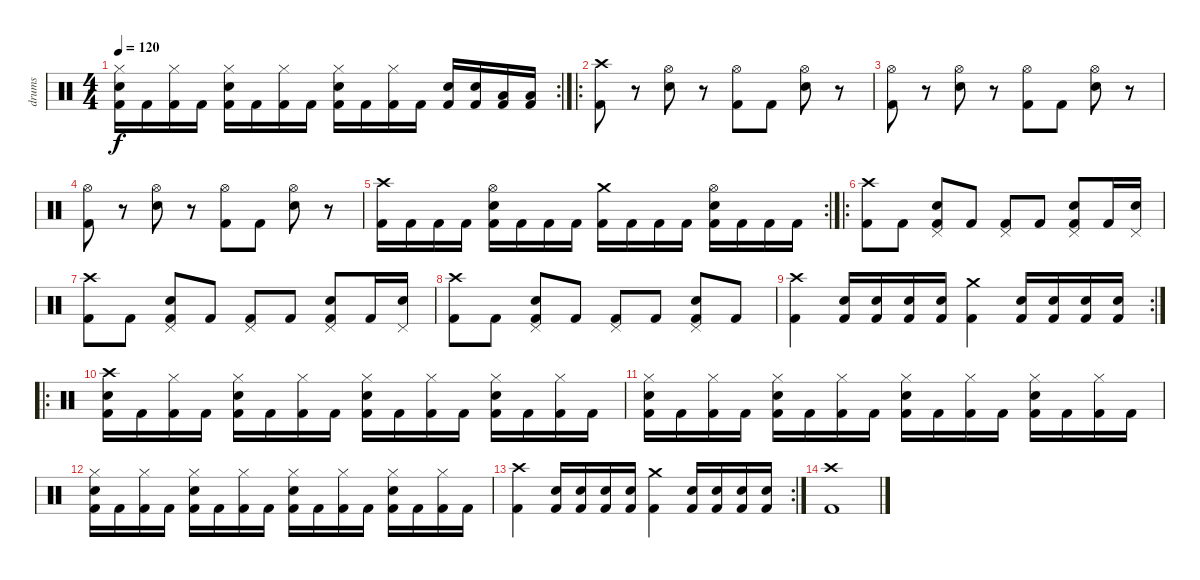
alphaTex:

\track ("drums" "drums") {instrument percussion}
\staff {score}
\articulation defaults
\rc 2
\ts (4 4)
\tempo 120
\clef neutral
\ks c
("Hi-Hat (closed)" "Snare (hit) 2" "Kick (hit) 2").16{dy f} "Kick (hit) 2".16 ("Hi-Hat (closed)" "Kick (hit) 2").16 "Kick (hit) 2".16 ("Hi-Hat (closed)" "Snare (hit) 2" "Kick (hit) 2").16 "Kick (hit) 2".16 ("Hi-Hat (closed)" "Kick (hit) 2").16 "Kick (hit) 2".16 ("Hi-Hat (closed)" "Snare (hit) 2" "Kick (hit) 2").16 "Kick (hit) 2".16 ("Hi-Hat (closed)" "Kick (hit) 2").16 "Kick (hit) 2".16 ("Snare (hit) 2" "Kick (hit) 2").16 ("Snare (hit) 2" "Kick (hit) 2").16 ("Low Tom (hit)" "Kick (hit) 2").16 ("Low Tom (hit)" "Kick (hit) 2").16 |
\ro
("Crash high (hit)" "Kick (hit) 2").8 r.8 ("Hi-Hat (open)" "Snare (hit) 2").8 r.8 ("Hi-Hat (open)" "Kick (hit) 2").8 "Kick (hit) 2".8 ("Hi-Hat (open)" "Snare (hit) 2").8 r.8 |
("Hi-Hat (open)" "Kick (hit) 2").8 r.8 ("Hi-Hat (open)" "Snare (hit) 2").8 r.8 ("Hi-Hat (open)" "Kick (hit) 2").8 "Kick (hit) 2".8 ("Hi-Hat (open)" "Snare (hit) 2").8 r.8 |
("Hi-Hat (open)" "Kick (hit) 2").8 r.8 ("Hi-Hat (open)" "Snare (hit) 2").8 r.8 ("Hi-Hat (open)" "Kick (hit) 2").8 "Kick (hit) 2".8 ("Hi-Hat (open)" "Snare (hit) 2").8 r.8 |
\rc 2
("Crash high (hit)" "Kick (hit) 2").16 "Kick (hit) 2".16 "Kick (hit) 2".16 "Kick (hit) 2".16 ("Hi-Hat (open)" "Snare (hit) 2" "Kick (hit) 2").16 "Kick (hit) 2".16 "Kick (hit) 2".16 "Kick (hit) 2".16 ("Crash medium (hit)" "Kick (hit) 2").16 "Kick (hit) 2".16 "Kick (hit) 2".16 "Kick (hit) 2".16 ("Hi-Hat (open)" "Snare (hit) 2" "Kick (hit) 2").16 "Kick (hit) 2".16 "Kick (hit) 2".16 "Kick (hit) 2".16 |
\ro
("Crash high (hit)" "Kick (hit) 2").8 "Kick (hit) 2".8 ("Pedal Hi-Hat (hit)" "Snare (hit) 2" "Kick (hit) 2").8 "Kick (hit) 2".8 ("Pedal Hi-Hat (hit)" "Kick (hit) 2").8 "Kick (hit) 2".8 ("Pedal Hi-Hat (hit)" "Snare (hit) 2" "Kick (hit) 2").8 "Kick (hit) 2".16 ("Pedal Hi-Hat (hit)" "Snare (hit) 2").16 |
("Crash high (hit)" "Kick (hit) 2").8 "Kick (hit) 2".8 ("Pedal Hi-Hat (hit)" "Snare (hit) 2" "Kick (hit) 2").8 "Kick (hit) 2".8 ("Pedal Hi-Hat (hit)" "Kick (hit) 2").8 "Kick (hit) 2".8 ("Pedal Hi-Hat (hit)" "Snare (hit) 2" "Kick (hit) 2").8 "Kick (hit) 2".16 ("Pedal Hi-Hat (hit)" "Snare (hit) 2").16 |
("Crash high (hit)" "Kick (hit) 2").8 "Kick (hit) 2".8 ("Pedal Hi-Hat (hit)" "Snare (hit) 2" "Kick (hit) 2").8 "Kick (hit) 2".8 ("Pedal Hi-Hat (hit)" "Kick (hit) 2").8 "Kick (hit) 2".8 ("Pedal Hi-Hat (hit)" "Snare (hit) 2" "Kick (hit) 2").8 "Kick (hit) 2".8 |
\rc 2
("Crash high (hit)" "Kick (hit) 2").4 ("Snare (hit) 2" "Kick (hit) 2").16 ("Snare (hit) 2" "Kick (hit) 2").16 ("Snare (hit) 2" "Kick (hit) 2").16 ("Snare (hit) 2" "Kick (hit) 2").16 ("Crash medium (hit)" "Kick (hit) 2").4 ("Snare (hit) 2" "Kick (hit) 2").16 ("Snare (hit) 2" "Kick (hit) 2").16 ("Snare (hit) 2" "Kick (hit) 2").16 ("Snare (hit) 2" "Kick (hit) 2").16 |
\ro
("Crash high (hit)" "Snare (hit) 2" "Kick (hit) 2").16 "Kick (hit) 2".16 ("Hi-Hat (closed)" "Kick (hit) 2").16 "Kick (hit) 2".16 ("Hi-Hat (closed)" "Snare (hit) 2" "Kick (hit) 2").16 "Kick (hit) 2".16 ("Hi-Hat (closed)" "Kick (hit) 2").16 "Kick (hit) 2".16 ("Hi-Hat (closed)" "Snare (hit) 2" "Kick (hit) 2").16 "Kick (hit) 2".16 ("Hi-Hat (closed)" "Kick (hit) 2").16 "Kick (hit) 2".16 ("Hi-Hat (closed)" "Snare (hit) 2" "Kick (hit) 2").16 "Kick (hit) 2".16 ("Hi-Hat (closed)" "Kick (hit) 2").16 "Kick (hit) 2".16 |
("Hi-Hat (closed)" "Snare (hit) 2" "Kick (hit) 2").16 "Kick (hit) 2".16 ("Hi-Hat (closed)" "Kick (hit) 2").16 "Kick (hit) 2".16 ("Hi-Hat (closed)" "Snare (hit) 2" "Kick (hit) 2").16 "Kick (hit) 2".16 ("Hi-Hat (closed)" "Kick (hit) 2").16 "Kick (hit) 2".16 ("Hi-Hat (closed)" "Snare (hit) 2" "Kick (hit) 2").16 "Kick (hit) 2".16 ("Hi-Hat (closed)" "Kick (hit) 2").16 "Kick (hit) 2".16 ("Hi-Hat (closed)" "Snare (hit) 2" "Kick (hit) 2").16 "Kick (hit) 2".16 ("Hi-Hat (closed)" "Kick (hit) 2").16 "Kick (hit) 2".16 |
("Hi-Hat (closed)" "Snare (hit) 2" "Kick (hit) 2").16 "Kick (hit) 2".16 ("Hi-Hat (closed)" "Kick (hit) 2").16 "Kick (hit) 2".16 ("Hi-Hat (closed)" "Snare (hit) 2" "Kick (hit) 2").16 "Kick (hit) 2".16 ("Hi-Hat (closed)" "Kick (hit) 2").16 "Kick (hit) 2".16 ("Hi-Hat (closed)" "Snare (hit) 2" "Kick (hit) 2").16 "Kick (hit) 2".16 ("Hi-Hat (closed)" "Kick (hit) 2").16 "Kick (hit) 2".16 ("Hi-Hat (closed)" "Snare (hit) 2" "Kick (hit) 2").16 "Kick (hit) 2".16 ("Hi-Hat (closed)" "Kick (hit) 2").16 "Kick (hit) 2".16 |
\rc 2
("Crash high (hit)" "Kick (hit) 2").4 ("Snare (hit) 2" "Kick (hit) 2").16 ("Snare (hit) 2" "Kick (hit) 2").16 ("Snare (hit) 2" "Kick (hit) 2").16 ("Snare (hit) 2" "Kick (hit) 2").16 ("Crash medium (hit)" "Kick (hit) 2").4 ("Snare (hit) 2" "Kick (hit) 2").16 ("Snare (hit) 2" "Kick (hit) 2").16 ("Snare (hit) 2" "Kick (hit) 2").16 ("Snare (hit) 2" "Kick (hit) 2").16 |
("Crash high (hit)" "Kick (hit) 2").1
